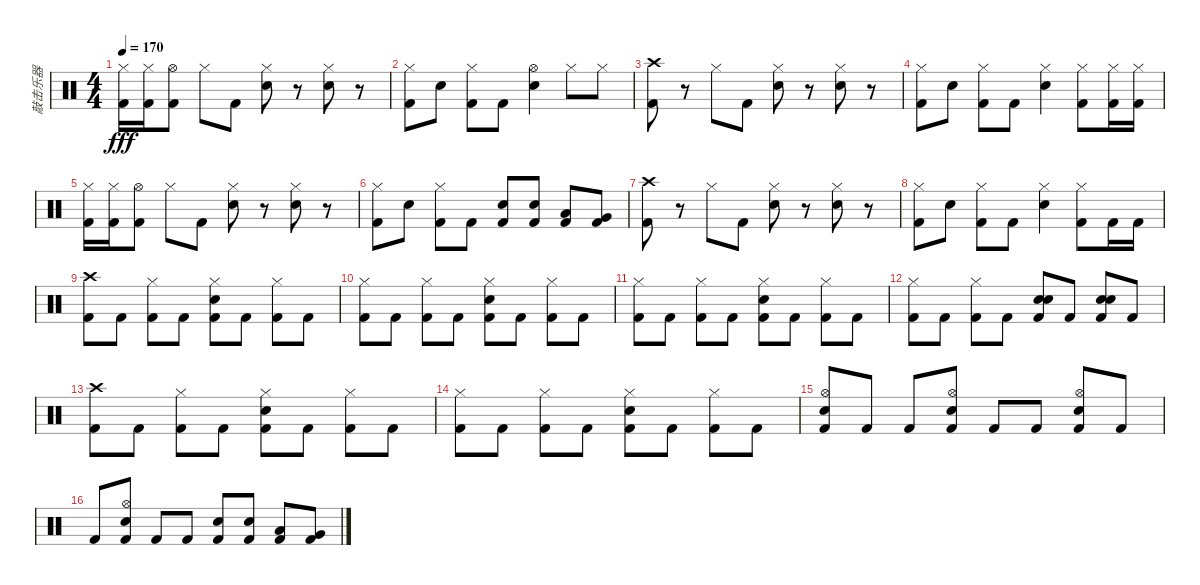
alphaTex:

\track ("敲击乐器" "敲击乐器") {instrument percussion}
\staff {score}
\articulation defaults
\ts (4 4)
\tempo 170
\clef neutral
\ks c
("Hi-Hat (closed)" "Kick (hit) 2").16{dy fff} ("Hi-Hat (closed)" "Kick (hit) 2").16 ("Hi-Hat (open)" "Kick (hit) 2").8 "Hi-Hat (closed)".8 "Kick (hit) 2".8 ("Hi-Hat (closed)" "Electric Snare (hit)").8 r.8 ("Hi-Hat (closed)" "Electric Snare (hit)").8 r.8 |
("Hi-Hat (closed)" "Kick (hit) 2").8 "Electric Snare (hit)".8 ("Hi-Hat (closed)" "Kick (hit) 2").8 "Kick (hit) 2".8 ("Hi-Hat (open)" "Electric Snare (hit)").4 "Hi-Hat (closed)".8 "Hi-Hat (closed)".8 |
("Crash high (hit)" "Kick (hit) 2").8 r.8 "Hi-Hat (closed)".8 "Kick (hit) 2".8 ("Hi-Hat (closed)" "Electric Snare (hit)").8 r.8 ("Hi-Hat (closed)" "Electric Snare (hit)").8 r.8 |
("Hi-Hat (closed)" "Kick (hit) 2").8 "Electric Snare (hit)".8 ("Hi-Hat (closed)" "Kick (hit) 2").8 "Kick (hit) 2".8 ("Hi-Hat (closed)" "Electric Snare (hit)").4 ("Hi-Hat (closed)" "Kick (hit) 2").8 ("Hi-Hat (closed)" "Kick (hit) 2").16 ("Hi-Hat (closed)" "Kick (hit) 2").16 |
("Hi-Hat (closed)" "Kick (hit) 2").16 ("Hi-Hat (closed)" "Kick (hit) 2").16 ("Hi-Hat (open)" "Kick (hit) 2").8 "Hi-Hat (closed)".8 "Kick (hit) 2".8 ("Hi-Hat (closed)" "Electric Snare (hit)").8 r.8 ("Hi-Hat (closed)" "Electric Snare (hit)").8 r.8 |
("Hi-Hat (closed)" "Kick (hit) 2").8 "Electric Snare (hit)".8 ("Hi-Hat (closed)" "Kick (hit) 2").8 "Kick (hit) 2".8 ("Electric Snare (hit)" "Kick (hit) 2").8 ("Electric Snare (hit)" "Kick (hit) 2").8 ("Low Tom (hit)" "Kick (hit) 2").8 ("Very Low Tom (hit)" "Kick (hit) 2").8 |
("Crash high (hit)" "Kick (hit) 2").8 r.8 "Hi-Hat (closed)".8 "Kick (hit) 2".8 ("Hi-Hat (closed)" "Electric Snare (hit)").8 r.8 ("Hi-Hat (closed)" "Electric Snare (hit)").8 r.8 |
("Hi-Hat (closed)" "Kick (hit) 2").8 "Electric Snare (hit)".8 ("Hi-Hat (closed)" "Kick (hit) 2").8 "Kick (hit) 2".8 ("Hi-Hat (closed)" "Electric Snare (hit)").4 ("Hi-Hat (closed)" "Kick (hit) 2").8 "Kick (hit) 2".16 "Kick (hit) 2".16 |
("Crash high (hit)" "Kick (hit) 2").8 "Kick (hit) 2".8 ("Hi-Hat (closed)" "Kick (hit) 2").8 "Kick (hit) 2".8 ("Hi-Hat (closed)" "Electric Snare (hit)" "Kick (hit) 2").8 "Kick (hit) 2".8 ("Hi-Hat (closed)" "Kick (hit) 2").8 "Kick (hit) 2".8 |
("Hi-Hat (closed)" "Kick (hit) 2").8 "Kick (hit) 2".8 ("Hi-Hat (closed)" "Kick (hit) 2").8 "Kick (hit) 2".8 ("Hi-Hat (closed)" "Electric Snare (hit)" "Kick (hit) 2").8 "Kick (hit) 2".8 ("Hi-Hat (closed)" "Kick (hit) 2").8 "Kick (hit) 2".8 |
("Hi-Hat (closed)" "Kick (hit) 2").8 "Kick (hit) 2".8 ("Hi-Hat (closed)" "Kick (hit) 2").8 "Kick (hit) 2".8 ("Hi-Hat (closed)" "Electric Snare (hit)" "Kick (hit) 2").8 "Kick (hit) 2".8 ("Hi-Hat (closed)" "Kick (hit) 2").8 "Kick (hit) 2".8 |
("Hi-Hat (closed)" "Kick (hit) 2").8 "Kick (hit) 2".8 ("Hi-Hat (closed)" "Kick (hit) 2").8 "Kick (hit) 2".8 ("Electric Snare (hit)" "Electric Snare (hit)" "Kick (hit) 2").8 "Kick (hit) 2".8 ("Electric Snare (hit)" "Electric Snare (hit)" "Kick (hit) 2").8 "Kick (hit) 2".8 |
("Crash high (hit)" "Kick (hit) 2").8 "Kick (hit) 2".8 ("Hi-Hat (closed)" "Kick (hit) 2").8 "Kick (hit) 2".8 ("Hi-Hat (closed)" "Electric Snare (hit)" "Kick (hit) 2").8 "Kick (hit) 2".8 ("Hi-Hat (closed)" "Kick (hit) 2").8 "Kick (hit) 2".8 |
("Hi-Hat (closed)" "Kick (hit) 2").8 "Kick (hit) 2".8 ("Hi-Hat (closed)" "Kick (hit) 2").8 "Kick (hit) 2".8 ("Hi-Hat (closed)" "Electric Snare (hit)" "Kick (hit) 2").8 "Kick (hit) 2".8 ("Hi-Hat (closed)" "Kick (hit) 2").8 "Kick (hit) 2".8 |
("Hi-Hat (open)" "Electric Snare (hit)" "Kick (hit) 2").8 "Kick (hit) 2".8 "Kick (hit) 2".8 ("Hi-Hat (open)" "Electric Snare (hit)" "Kick (hit) 2").8 "Kick (hit) 2".8 "Kick (hit) 2".8 ("Hi-Hat (open)" "Electric Snare (hit)" "Kick (hit) 2").8 "Kick (hit) 2".8 |
"Kick (hit) 2".8 ("Hi-Hat (open)" "Electric Snare (hit)" "Kick (hit) 2").8 "Kick (hit) 2".8 "Kick (hit) 2".8 ("Electric Snare (hit)" "Kick (hit) 2").8 ("Electric Snare (hit)" "Kick (hit) 2").8 ("Low Tom (hit)" "Kick (hit) 2").8 ("Very Low Tom (hit)" "Kick (hit) 2").8
